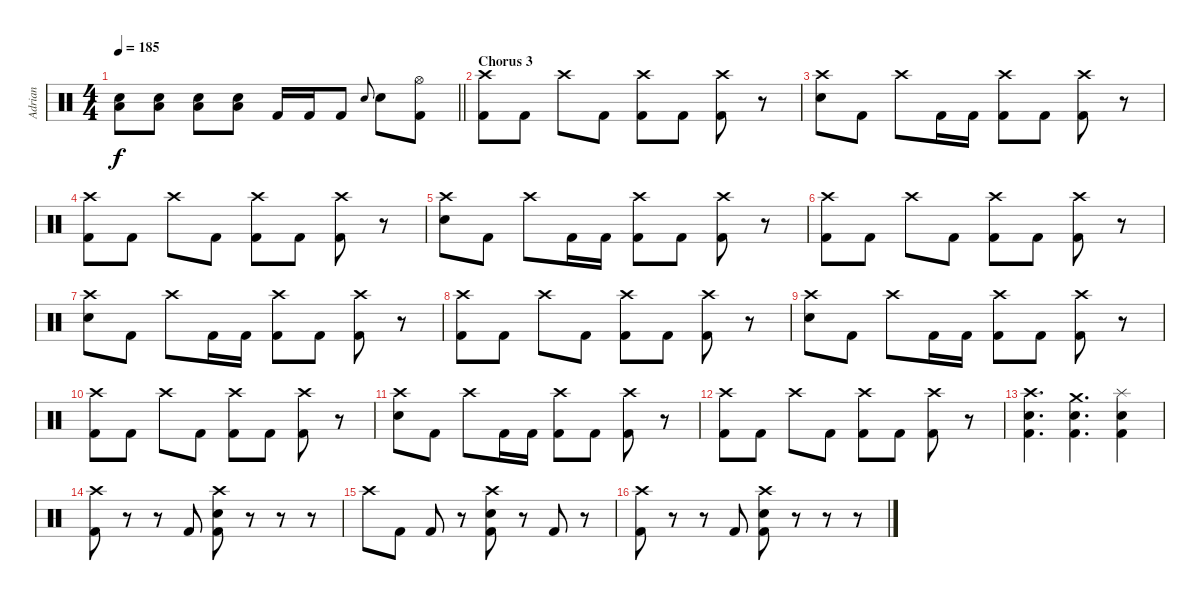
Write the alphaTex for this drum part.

\track ("Adrian" "Adrian") {instrument percussion}
\staff {score}
\articulation defaults
\ts (4 4)
\tempo 185
\clef neutral
\barLineRight lightlight
\ks c
("Low Floor Tom (hit)" "Snare (hit) 2").8{dy f} ("Low Floor Tom (hit)" "Snare (hit) 2").8 ("Low Floor Tom (hit)" "Snare (hit) 2").8 ("Low Floor Tom (hit)" "Snare (hit) 2").8 "Kick (hit) 2".16 "Kick (hit) 2".16 "Kick (hit) 2".8 "Snare (hit) 2"{h}.8{gr onbeat} "Snare (hit) 2".8 ("Hi-Hat (open)" "Kick (hit) 2").8 |
\section ("" "Chorus 3")
("Crash high (hit)" "Kick (hit) 2").8 "Kick (hit) 2".8 "Crash high (hit)".8 "Kick (hit) 2".8 ("Crash high (hit)" "Kick (hit) 2").8 "Kick (hit) 2".8 ("Crash high (hit)" "Kick (hit) 2").8 r.8 |
("Crash high (hit)" "Snare (hit) 2").8 "Kick (hit) 2".8 "Crash high (hit)".8 "Kick (hit) 2".16 "Kick (hit) 2".16 ("Crash high (hit)" "Kick (hit) 2").8 "Kick (hit) 2".8 ("Crash high (hit)" "Kick (hit) 2").8 r.8 |
("Crash high (hit)" "Kick (hit) 2").8 "Kick (hit) 2".8 "Crash high (hit)".8 "Kick (hit) 2".8 ("Crash high (hit)" "Kick (hit) 2").8 "Kick (hit) 2".8 ("Crash high (hit)" "Kick (hit) 2").8 r.8 |
("Crash high (hit)" "Snare (hit) 2").8 "Kick (hit) 2".8 "Crash high (hit)".8 "Kick (hit) 2".16 "Kick (hit) 2".16 ("Crash high (hit)" "Kick (hit) 2").8 "Kick (hit) 2".8 ("Crash high (hit)" "Kick (hit) 2").8 r.8 |
("Crash high (hit)" "Kick (hit) 2").8 "Kick (hit) 2".8 "Crash high (hit)".8 "Kick (hit) 2".8 ("Crash high (hit)" "Kick (hit) 2").8 "Kick (hit) 2".8 ("Crash high (hit)" "Kick (hit) 2").8 r.8 |
("Crash high (hit)" "Snare (hit) 2").8 "Kick (hit) 2".8 "Crash high (hit)".8 "Kick (hit) 2".16 "Kick (hit) 2".16 ("Crash high (hit)" "Kick (hit) 2").8 "Kick (hit) 2".8 ("Crash high (hit)" "Kick (hit) 2").8 r.8 |
("Crash high (hit)" "Kick (hit) 2").8 "Kick (hit) 2".8 "Crash high (hit)".8 "Kick (hit) 2".8 ("Crash high (hit)" "Kick (hit) 2").8 "Kick (hit) 2".8 ("Crash high (hit)" "Kick (hit) 2").8 r.8 |
("Crash high (hit)" "Snare (hit) 2").8 "Kick (hit) 2".8 "Crash high (hit)".8 "Kick (hit) 2".16 "Kick (hit) 2".16 ("Crash high (hit)" "Kick (hit) 2").8 "Kick (hit) 2".8 ("Crash high (hit)" "Kick (hit) 2").8 r.8 |
("Crash high (hit)" "Kick (hit) 2").8 "Kick (hit) 2".8 "Crash high (hit)".8 "Kick (hit) 2".8 ("Crash high (hit)" "Kick (hit) 2").8 "Kick (hit) 2".8 ("Crash high (hit)" "Kick (hit) 2").8 r.8 |
("Crash high (hit)" "Snare (hit) 2").8 "Kick (hit) 2".8 "Crash high (hit)".8 "Kick (hit) 2".16 "Kick (hit) 2".16 ("Crash high (hit)" "Kick (hit) 2").8 "Kick (hit) 2".8 ("Crash high (hit)" "Kick (hit) 2").8 r.8 |
("Crash high (hit)" "Kick (hit) 2").8 "Kick (hit) 2".8 "Crash high (hit)".8 "Kick (hit) 2".8 ("Crash high (hit)" "Kick (hit) 2").8 "Kick (hit) 2".8 ("Crash high (hit)" "Kick (hit) 2").8 r.8 |
("Crash high (hit)" "Snare (hit) 2" "Kick (hit) 2").4{d} ("Crash medium (hit)" "Snare (hit) 2" "Kick (hit) 2").4{d} ("Splash (hit)" "Snare (hit) 2" "Kick (hit) 2").4 |
("Crash high (hit)" "Kick (hit) 2").8 r.8 r.8 "Kick (hit) 2".8 ("Crash high (hit)" "Snare (hit) 2" "Kick (hit) 2").8 r.8 r.8 r.8 |
"Crash high (hit)".8 "Kick (hit) 2".8 "Kick (hit) 2".8 r.8 ("Crash high (hit)" "Snare (hit) 2" "Kick (hit) 2").8 r.8 "Kick (hit) 2".8 r.8 |
("Crash high (hit)" "Kick (hit) 2").8 r.8 r.8 "Kick (hit) 2".8 ("Crash high (hit)" "Snare (hit) 2" "Kick (hit) 2").8 r.8 r.8 r.8
